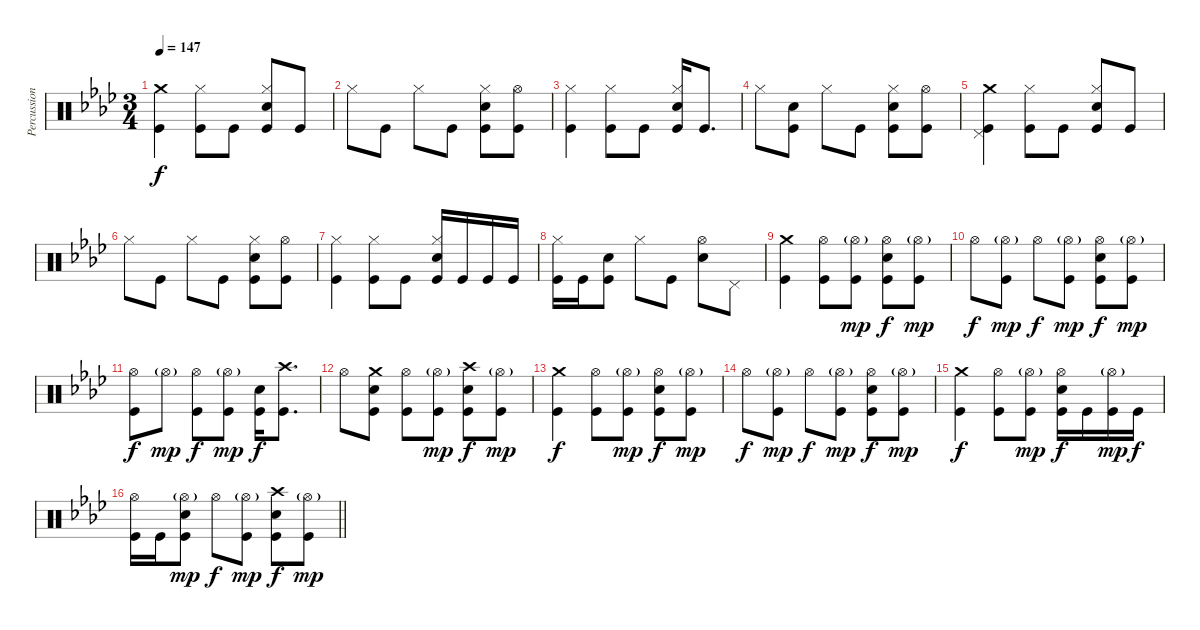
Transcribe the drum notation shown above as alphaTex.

\track ("Percussion" "Percussion") {instrument percussion}
\staff {score}
\articulation defaults
\ts (3 4)
\tempo 147
\clef neutral
\ks ab
("Crash medium (hit)" "Kick (hit)").4{dy f} ("Hi-Hat (closed)" "Kick (hit)").8 "Kick (hit)".8 ("Hi-Hat (closed)" "Electric Snare (hit)" "Kick (hit)").8 "Kick (hit)".8 |
"Hi-Hat (closed)".8 "Kick (hit)".8 "Hi-Hat (closed)".8 "Kick (hit)".8 ("Hi-Hat (closed)" "Electric Snare (hit)" "Kick (hit)").8 ("Hi-Hat (open)" "Kick (hit)").8 |
("Hi-Hat (closed)" "Kick (hit)").4 ("Hi-Hat (closed)" "Kick (hit)").8 "Kick (hit)".8 ("Hi-Hat (closed)" "Electric Snare (hit)" "Kick (hit)").16 "Kick (hit)".8{d} |
"Hi-Hat (closed)".8 ("Electric Snare (hit)" "Kick (hit)").8 "Hi-Hat (closed)".8 "Kick (hit)".8 ("Hi-Hat (closed)" "Electric Snare (hit)" "Kick (hit)").8 ("Hi-Hat (open)" "Kick (hit)").8 |
("Crash medium (hit)" "Pedal Hi-Hat (hit)" "Kick (hit)").4 ("Hi-Hat (closed)" "Kick (hit)").8 "Kick (hit)".8 ("Hi-Hat (closed)" "Electric Snare (hit)" "Kick (hit)").8 "Kick (hit)".8 |
"Hi-Hat (closed)".8 "Kick (hit)".8 "Hi-Hat (closed)".8 "Kick (hit)".8 ("Hi-Hat (closed)" "Electric Snare (hit)" "Kick (hit)").8 ("Hi-Hat (open)" "Kick (hit)").8 |
("Hi-Hat (closed)" "Kick (hit)").4 ("Hi-Hat (closed)" "Kick (hit)").8 "Kick (hit)".8 ("Hi-Hat (closed)" "Electric Snare (hit)" "Kick (hit)").16 "Kick (hit)".16 "Kick (hit)".16 "Kick (hit)".16 |
("Hi-Hat (closed)" "Kick (hit)").16 "Kick (hit)".16 ("Electric Snare (hit)" "Kick (hit)").8 "Hi-Hat (closed)".8 "Kick (hit)".8 ("Hi-Hat (open)" "Electric Snare (hit)").8 "Pedal Hi-Hat (hit)".8 |
("Crash medium (hit)" "Kick (hit)").4 ("Hi-Hat (open)" "Kick (hit)").8 ("Hi-Hat (open)"{g} "Kick (hit)").8{dy mp} ("Hi-Hat (open)" "Electric Snare (hit)" "Kick (hit)").8{dy f} ("Hi-Hat (open)"{g} "Kick (hit)").8{dy mp} |
"Hi-Hat (open)".8{dy f} ("Hi-Hat (open)"{g} "Kick (hit)").8{dy mp} "Hi-Hat (open)".8{dy f} ("Hi-Hat (open)"{g} "Kick (hit)").8{dy mp} ("Hi-Hat (open)" "Electric Snare (hit)" "Kick (hit)").8{dy f} ("Hi-Hat (open)"{g} "Kick (hit)").8{dy mp} |
("Hi-Hat (open)" "Kick (hit)").8{dy f} "Hi-Hat (open)"{g}.8{dy mp} ("Hi-Hat (open)" "Kick (hit)").8{dy f} ("Hi-Hat (open)"{g} "Kick (hit)").8{dy mp} ("Electric Snare (hit)" "Kick (hit)").16{dy f} ("Crash high (hit)" "Kick (hit)").8{d} |
"Hi-Hat (open)".8 ("Crash medium (hit)" "Electric Snare (hit)" "Kick (hit)").8 ("Hi-Hat (open)" "Kick (hit)").8 ("Hi-Hat (open)"{g} "Kick (hit)").8{dy mp} ("Crash high (hit)" "Electric Snare (hit)" "Kick (hit)").8{dy f} ("Hi-Hat (open)"{g} "Kick (hit)").8{dy mp} |
("Crash medium (hit)" "Kick (hit)").4{dy f} ("Hi-Hat (open)" "Kick (hit)").8 ("Hi-Hat (open)"{g} "Kick (hit)").8{dy mp} ("Hi-Hat (open)" "Electric Snare (hit)" "Kick (hit)").8{dy f} ("Hi-Hat (open)"{g} "Kick (hit)").8{dy mp} |
"Hi-Hat (open)".8{dy f} ("Hi-Hat (open)"{g} "Kick (hit)").8{dy mp} "Hi-Hat (open)".8{dy f} ("Hi-Hat (open)"{g} "Kick (hit)").8{dy mp} ("Hi-Hat (open)" "Electric Snare (hit)" "Kick (hit)").8{dy f} ("Hi-Hat (open)"{g} "Kick (hit)").8{dy mp} |
("Crash medium (hit)" "Kick (hit)").4{dy f} ("Hi-Hat (open)" "Kick (hit)").8 ("Hi-Hat (open)"{g} "Kick (hit)").8{dy mp} ("Hi-Hat (open)" "Electric Snare (hit)" "Kick (hit)").16{dy f} "Kick (hit)".16 ("Hi-Hat (open)"{g} "Kick (hit)").16{dy mp} "Kick (hit)".16{dy f} |
\barLineRight lightlight
("Hi-Hat (open)" "Kick (hit)").16 "Kick (hit)".16 ("Hi-Hat (open)"{g} "Electric Snare (hit)" "Kick (hit)").8{dy mp} "Hi-Hat (open)".8{dy f} ("Hi-Hat (open)"{g} "Kick (hit)").8{dy mp} ("Crash high (hit)" "Electric Snare (hit)" "Kick (hit)").8{dy f} ("Hi-Hat (open)"{g} "Kick (hit)").8{dy mp}
